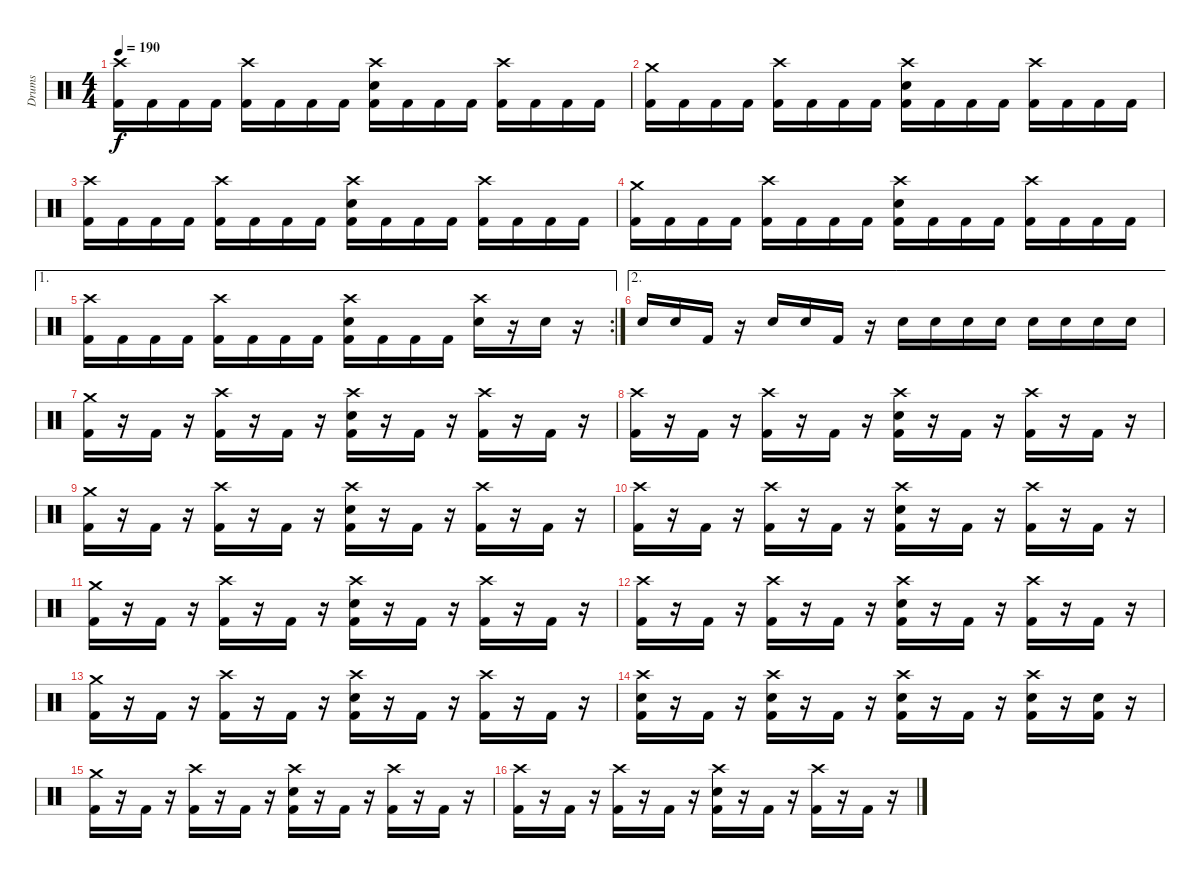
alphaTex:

\track ("Drums" "Drums") {instrument percussion}
\staff {score}
\articulation defaults
\ts (4 4)
\tempo 190
\clef neutral
\ks c
("Crash high (hit)" "Kick (hit) 2").16{dy f} "Kick (hit) 2".16 "Kick (hit) 2".16 "Kick (hit) 2".16 ("Crash high (hit)" "Kick (hit) 2").16 "Kick (hit) 2".16 "Kick (hit) 2".16 "Kick (hit) 2".16 ("Crash high (hit)" "Electric Snare (hit)" "Kick (hit) 2").16 "Kick (hit) 2".16 "Kick (hit) 2".16 "Kick (hit) 2".16 ("Crash high (hit)" "Kick (hit) 2").16 "Kick (hit) 2".16 "Kick (hit) 2".16 "Kick (hit) 2".16 |
("Crash medium (hit)" "Kick (hit) 2").16 "Kick (hit) 2".16 "Kick (hit) 2".16 "Kick (hit) 2".16 ("Crash high (hit)" "Kick (hit) 2").16 "Kick (hit) 2".16 "Kick (hit) 2".16 "Kick (hit) 2".16 ("Crash high (hit)" "Electric Snare (hit)" "Kick (hit) 2").16 "Kick (hit) 2".16 "Kick (hit) 2".16 "Kick (hit) 2".16 ("Crash high (hit)" "Kick (hit) 2").16 "Kick (hit) 2".16 "Kick (hit) 2".16 "Kick (hit) 2".16 |
("Crash high (hit)" "Kick (hit) 2").16 "Kick (hit) 2".16 "Kick (hit) 2".16 "Kick (hit) 2".16 ("Crash high (hit)" "Kick (hit) 2").16 "Kick (hit) 2".16 "Kick (hit) 2".16 "Kick (hit) 2".16 ("Crash high (hit)" "Electric Snare (hit)" "Kick (hit) 2").16 "Kick (hit) 2".16 "Kick (hit) 2".16 "Kick (hit) 2".16 ("Crash high (hit)" "Kick (hit) 2").16 "Kick (hit) 2".16 "Kick (hit) 2".16 "Kick (hit) 2".16 |
("Crash medium (hit)" "Kick (hit) 2").16 "Kick (hit) 2".16 "Kick (hit) 2".16 "Kick (hit) 2".16 ("Crash high (hit)" "Kick (hit) 2").16 "Kick (hit) 2".16 "Kick (hit) 2".16 "Kick (hit) 2".16 ("Crash high (hit)" "Electric Snare (hit)" "Kick (hit) 2").16 "Kick (hit) 2".16 "Kick (hit) 2".16 "Kick (hit) 2".16 ("Crash high (hit)" "Kick (hit) 2").16 "Kick (hit) 2".16 "Kick (hit) 2".16 "Kick (hit) 2".16 |
\ae 1
\rc 2
("Crash high (hit)" "Kick (hit) 2").16 "Kick (hit) 2".16 "Kick (hit) 2".16 "Kick (hit) 2".16 ("Crash high (hit)" "Kick (hit) 2").16 "Kick (hit) 2".16 "Kick (hit) 2".16 "Kick (hit) 2".16 ("Crash high (hit)" "Electric Snare (hit)" "Kick (hit) 2").16 "Kick (hit) 2".16 "Kick (hit) 2".16 "Kick (hit) 2".16 ("Crash high (hit)" "Electric Snare (hit)").16 r.16 "Electric Snare (hit)".16 r.16 |
\ae 2 "Electric Snare (hit)".16 "Electric Snare (hit)".16 "Kick (hit) 2".16
r.16 "Electric Snare (hit)".16 "Electric Snare (hit)".16 "Kick (hit) 2".16 r.16 "Electric Snare (hit)".16 "Electric Snare (hit)".16 "Electric Snare (hit)".16 "Electric Snare (hit)".16 "Electric Snare (hit)".16 "Electric Snare (hit)".16 "Electric Snare (hit)".16 "Electric Snare (hit)".16 |
("Crash medium (hit)" "Kick (hit) 2").16 r.16 "Kick (hit) 2".16 r.16 ("Crash high (hit)" "Kick (hit) 2").16 r.16 "Kick (hit) 2".16 r.16 ("Crash high (hit)" "Electric Snare (hit)" "Kick (hit) 2").16 r.16 "Kick (hit) 2".16 r.16 ("Crash high (hit)" "Kick (hit) 2").16 r.16 "Kick (hit) 2".16 r.16 |
("Crash high (hit)" "Kick (hit) 2").16 r.16 "Kick (hit) 2".16 r.16 ("Crash high (hit)" "Kick (hit) 2").16 r.16 "Kick (hit) 2".16 r.16 ("Crash high (hit)" "Electric Snare (hit)" "Kick (hit) 2").16 r.16 "Kick (hit) 2".16 r.16 ("Crash high (hit)" "Kick (hit) 2").16 r.16 "Kick (hit) 2".16 r.16 |
("Crash medium (hit)" "Kick (hit) 2").16 r.16 "Kick (hit) 2".16 r.16 ("Crash high (hit)" "Kick (hit) 2").16 r.16 "Kick (hit) 2".16 r.16 ("Crash high (hit)" "Electric Snare (hit)" "Kick (hit) 2").16 r.16 "Kick (hit) 2".16 r.16 ("Crash high (hit)" "Kick (hit) 2").16 r.16 "Kick (hit) 2".16 r.16 |
("Crash high (hit)" "Kick (hit) 2").16 r.16 "Kick (hit) 2".16 r.16 ("Crash high (hit)" "Kick (hit) 2").16 r.16 "Kick (hit) 2".16 r.16 ("Crash high (hit)" "Electric Snare (hit)" "Kick (hit) 2").16 r.16 "Kick (hit) 2".16 r.16 ("Crash high (hit)" "Kick (hit) 2").16 r.16 "Kick (hit) 2".16 r.16 |
("Crash medium (hit)" "Kick (hit) 2").16 r.16 "Kick (hit) 2".16 r.16 ("Crash high (hit)" "Kick (hit) 2").16 r.16 "Kick (hit) 2".16 r.16 ("Crash high (hit)" "Electric Snare (hit)" "Kick (hit) 2").16 r.16 "Kick (hit) 2".16 r.16 ("Crash high (hit)" "Kick (hit) 2").16 r.16 "Kick (hit) 2".16 r.16 |
("Crash high (hit)" "Kick (hit) 2").16 r.16 "Kick (hit) 2".16 r.16 ("Crash high (hit)" "Kick (hit) 2").16 r.16 "Kick (hit) 2".16 r.16 ("Crash high (hit)" "Electric Snare (hit)" "Kick (hit) 2").16 r.16 "Kick (hit) 2".16 r.16 ("Crash high (hit)" "Kick (hit) 2").16 r.16 "Kick (hit) 2".16 r.16 |
("Crash medium (hit)" "Kick (hit) 2").16 r.16 "Kick (hit) 2".16 r.16 ("Crash high (hit)" "Kick (hit) 2").16 r.16 "Kick (hit) 2".16 r.16 ("Crash high (hit)" "Electric Snare (hit)" "Kick (hit) 2").16 r.16 "Kick (hit) 2".16 r.16 ("Crash high (hit)" "Kick (hit) 2").16 r.16 "Kick (hit) 2".16 r.16 |
("Crash high (hit)" "Electric Snare (hit)" "Kick (hit) 2").16 r.16 "Kick (hit) 2".16 r.16 ("Crash high (hit)" "Electric Snare (hit)" "Kick (hit) 2").16 r.16 "Kick (hit) 2".16 r.16 ("Crash high (hit)" "Electric Snare (hit)" "Kick (hit) 2").16 r.16 "Kick (hit) 2".16 r.16 ("Crash high (hit)" "Electric Snare (hit)" "Kick (hit) 2").16 r.16 ("Electric Snare (hit)" "Kick (hit) 2").16 r.16 |
("Crash medium (hit)" "Kick (hit) 2").16 r.16 "Kick (hit) 2".16 r.16 ("Crash high (hit)" "Kick (hit) 2").16 r.16 "Kick (hit) 2".16 r.16 ("Crash high (hit)" "Electric Snare (hit)" "Kick (hit) 2").16 r.16 "Kick (hit) 2".16 r.16 ("Crash high (hit)" "Kick (hit) 2").16 r.16 "Kick (hit) 2".16 r.16 |
("Crash high (hit)" "Kick (hit) 2").16 r.16 "Kick (hit) 2".16 r.16 ("Crash high (hit)" "Kick (hit) 2").16 r.16 "Kick (hit) 2".16 r.16 ("Crash high (hit)" "Electric Snare (hit)" "Kick (hit) 2").16 r.16 "Kick (hit) 2".16 r.16 ("Crash high (hit)" "Kick (hit) 2").16 r.16 "Kick (hit) 2".16 r.16
